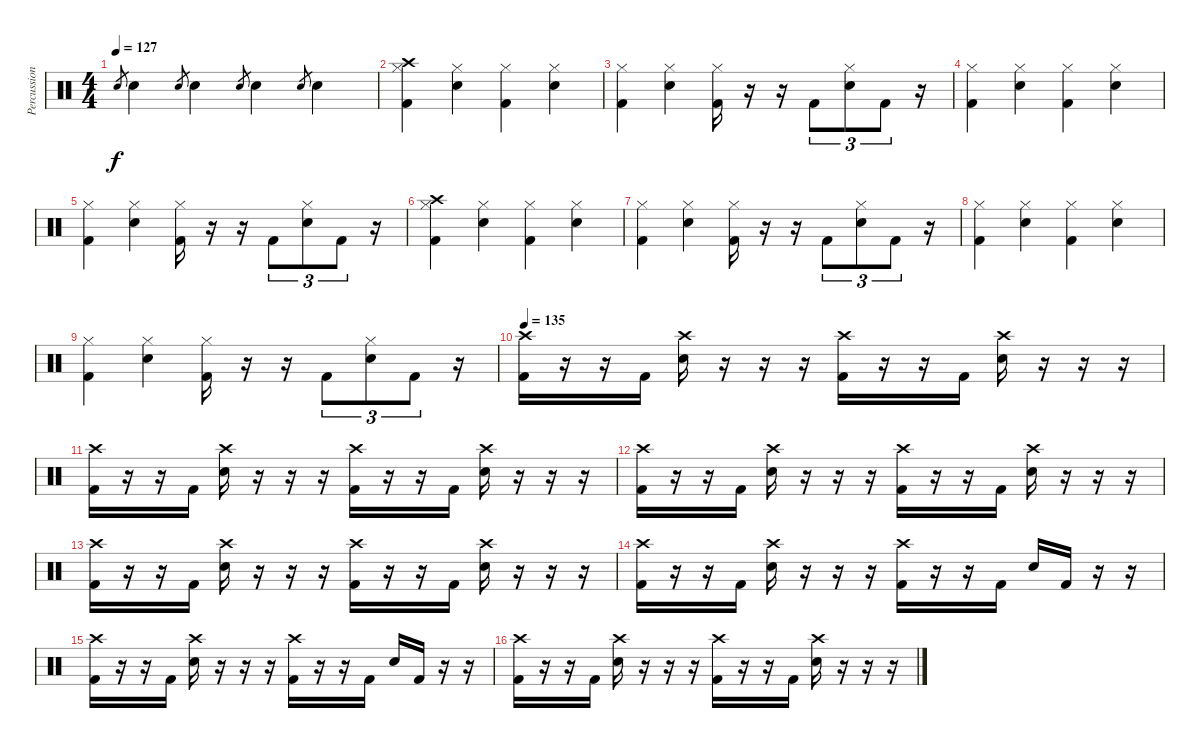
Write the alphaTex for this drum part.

\track ("Percussions" "Percussion") {instrument percussion}
\staff {score}
\articulation defaults
\ts (4 4)
\tempo 127
\clef neutral
\ks c "Electric Snare (hit)".8{gr dy f} "Electric Snare (hit)".4 "Electric Snare (hit)".8{gr} "Electric Snare (hit)".4 "Electric Snare (hit)".8{gr} "Electric Snare (hit)".4 "Electric Snare (hit)".8{gr} "Electric Snare (hit)".4
|
("Crash high (hit)" "Hi-Hat (closed)" "Kick (hit) 2").4 ("Hi-Hat (closed)" "Electric Snare (hit)").4 ("Hi-Hat (closed)" "Kick (hit) 2").4 ("Hi-Hat (closed)" "Electric Snare (hit)").4 |
("Hi-Hat (closed)" "Kick (hit) 2").4 ("Hi-Hat (closed)" "Electric Snare (hit)").4 ("Hi-Hat (closed)" "Kick (hit) 2").16 r.16 r.16 "Kick (hit) 2".8{tu (3 2)} ("Hi-Hat (closed)" "Electric Snare (hit)").8{tu (3 2)} "Kick (hit) 2".8{tu (3 2)} r.16 |
("Hi-Hat (closed)" "Kick (hit) 2").4 ("Hi-Hat (closed)" "Electric Snare (hit)").4 ("Hi-Hat (closed)" "Kick (hit) 2").4 ("Hi-Hat (closed)" "Electric Snare (hit)").4 |
("Hi-Hat (closed)" "Kick (hit) 2").4 ("Hi-Hat (closed)" "Electric Snare (hit)").4 ("Hi-Hat (closed)" "Kick (hit) 2").16 r.16 r.16 "Kick (hit) 2".8{tu (3 2)} ("Hi-Hat (closed)" "Electric Snare (hit)").8{tu (3 2)} "Kick (hit) 2".8{tu (3 2)} r.16 |
("Crash high (hit)" "Hi-Hat (closed)" "Kick (hit) 2").4 ("Hi-Hat (closed)" "Electric Snare (hit)").4 ("Hi-Hat (closed)" "Kick (hit) 2").4 ("Hi-Hat (closed)" "Electric Snare (hit)").4 |
("Hi-Hat (closed)" "Kick (hit) 2").4 ("Hi-Hat (closed)" "Electric Snare (hit)").4 ("Hi-Hat (closed)" "Kick (hit) 2").16 r.16 r.16 "Kick (hit) 2".8{tu (3 2)} ("Hi-Hat (closed)" "Electric Snare (hit)").8{tu (3 2)} "Kick (hit) 2".8{tu (3 2)} r.16 |
("Hi-Hat (closed)" "Kick (hit) 2").4 ("Hi-Hat (closed)" "Electric Snare (hit)").4 ("Hi-Hat (closed)" "Kick (hit) 2").4 ("Hi-Hat (closed)" "Electric Snare (hit)").4 |
("Hi-Hat (closed)" "Kick (hit) 2").4 ("Hi-Hat (closed)" "Electric Snare (hit)").4 ("Hi-Hat (closed)" "Kick (hit) 2").16 r.16 r.16 "Kick (hit) 2".8{tu (3 2)} ("Hi-Hat (closed)" "Electric Snare (hit)").8{tu (3 2)} "Kick (hit) 2".8{tu (3 2)} r.16 |
\tempo 135
("Crash high (hit)" "Kick (hit) 2").16 r.16 r.16 "Kick (hit) 2".16 ("Crash high (hit)" "Electric Snare (hit)").16 r.16 r.16 r.16 ("Crash high (hit)" "Kick (hit) 2").16 r.16 r.16 "Kick (hit) 2".16 ("Crash high (hit)" "Electric Snare (hit)").16 r.16 r.16 r.16 |
("Crash high (hit)" "Kick (hit) 2").16 r.16 r.16 "Kick (hit) 2".16 ("Crash high (hit)" "Electric Snare (hit)").16 r.16 r.16 r.16 ("Crash high (hit)" "Kick (hit) 2").16 r.16 r.16 "Kick (hit) 2".16 ("Crash high (hit)" "Electric Snare (hit)").16 r.16 r.16 r.16 |
("Crash high (hit)" "Kick (hit) 2").16 r.16 r.16 "Kick (hit) 2".16 ("Crash high (hit)" "Electric Snare (hit)").16 r.16 r.16 r.16 ("Crash high (hit)" "Kick (hit) 2").16 r.16 r.16 "Kick (hit) 2".16 ("Crash high (hit)" "Electric Snare (hit)").16 r.16 r.16 r.16 |
("Crash high (hit)" "Kick (hit) 2").16 r.16 r.16 "Kick (hit) 2".16 ("Crash high (hit)" "Electric Snare (hit)").16 r.16 r.16 r.16 ("Crash high (hit)" "Kick (hit) 2").16 r.16 r.16 "Kick (hit) 2".16 ("Crash high (hit)" "Electric Snare (hit)").16 r.16 r.16 r.16 |
("Crash high (hit)" "Kick (hit) 2").16 r.16 r.16 "Kick (hit) 2".16 ("Crash high (hit)" "Electric Snare (hit)").16 r.16 r.16 r.16 ("Crash high (hit)" "Kick (hit) 2").16 r.16 r.16 "Kick (hit) 2".16 "Electric Snare (hit)".16 "Kick (hit) 2".16 r.16 r.16 |
("Crash high (hit)" "Kick (hit) 2").16 r.16 r.16 "Kick (hit) 2".16 ("Crash high (hit)" "Electric Snare (hit)").16 r.16 r.16 r.16 ("Crash high (hit)" "Kick (hit) 2").16 r.16 r.16 "Kick (hit) 2".16 "Electric Snare (hit)".16 "Kick (hit) 2".16 r.16 r.16 |
("Crash high (hit)" "Kick (hit) 2").16 r.16 r.16 "Kick (hit) 2".16 ("Crash high (hit)" "Electric Snare (hit)").16 r.16 r.16 r.16 ("Crash high (hit)" "Kick (hit) 2").16 r.16 r.16 "Kick (hit) 2".16 ("Crash high (hit)" "Electric Snare (hit)").16 r.16 r.16 r.16
